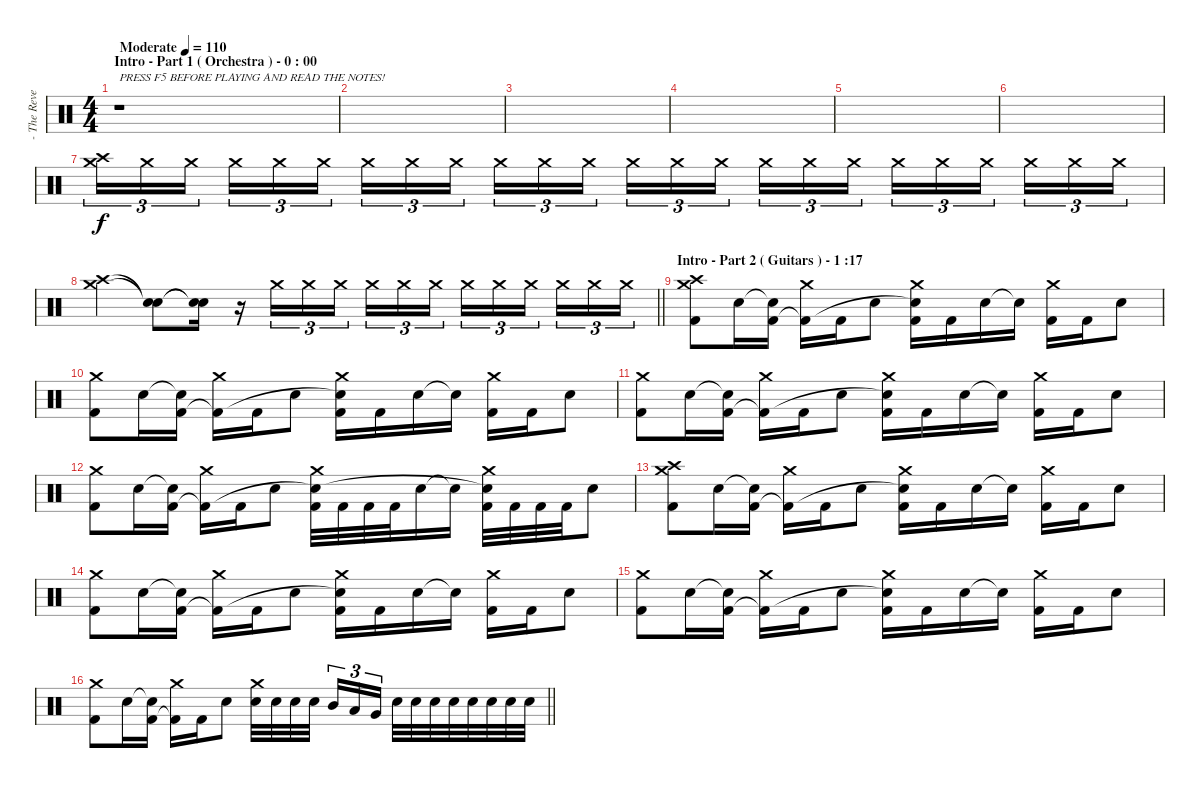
\track ("- The Reverend - Drums" "- The Reve") {instrument percussion}
\staff {score}
\articulation defaults
\ts (4 4)
\section ("" "Intro - Part 1 ( Orchestra ) - 0 : 00")
\tempo (110 "Moderate")
\clef neutral
\ks c
r.1{txt "PRESS F5 BEFORE PLAYING AND READ THE NOTES!" dy f volume 2} |
|
|
|
|
|
("Crash high (hit)" "Crash medium (hit)").16{tu (3 2) volume 16} "Crash medium (hit)".16{tu (3 2)} "Crash medium (hit)".16{tu (3 2) beam splitsecondary} "Crash medium (hit)".16{tu (3 2)} "Crash medium (hit)".16{tu (3 2)} "Crash medium (hit)".16{tu (3 2)} "Crash medium (hit)".16{tu (3 2)} "Crash medium (hit)".16{tu (3 2)} "Crash medium (hit)".16{tu (3 2) beam splitsecondary} "Crash medium (hit)".16{tu (3 2)} "Crash medium (hit)".16{tu (3 2)} "Crash medium (hit)".16{tu (3 2)} "Crash medium (hit)".16{tu (3 2)} "Crash medium (hit)".16{tu (3 2)} "Crash medium (hit)".16{tu (3 2) beam splitsecondary} "Crash medium (hit)".16{tu (3 2)} "Crash medium (hit)".16{tu (3 2)} "Crash medium (hit)".16{tu (3 2)} "Crash medium (hit)".16{tu (3 2)} "Crash medium (hit)".16{tu (3 2)} "Crash medium (hit)".16{tu (3 2) beam splitsecondary} "Crash medium (hit)".16{tu (3 2)} "Crash medium (hit)".16{tu (3 2)} "Crash medium (hit)".16{tu (3 2)} |
\barLineRight lightlight
("Crash high (hit)" "Crash medium (hit)").4 ("Snare (hit)"{t} "Snare (hit)"{t}).8 ("Snare (hit)"{t} "Snare (hit)"{t}).16 r.16{volume 3} "Crash medium (hit)".16{tu (3 2) volume 16} "Crash medium (hit)".16{tu (3 2)} "Crash medium (hit)".16{tu (3 2) beam splitsecondary} "Crash medium (hit)".16{tu (3 2)} "Crash medium (hit)".16{tu (3 2)} "Crash medium (hit)".16{tu (3 2)} "Crash medium (hit)".16{tu (3 2)} "Crash medium (hit)".16{tu (3 2)} "Crash medium (hit)".16{tu (3 2) beam splitsecondary} "Crash medium (hit)".16{tu (3 2)} "Crash medium (hit)".16{tu (3 2)} "Crash medium (hit)".16{tu (3 2)} |
\section ("" "Intro - Part 2 ( Guitars ) - 1 :17")
("Crash medium (hit)" "Crash high (hit)" "Kick (hit) 2").8 "Snare (hit) 2".16 ("Snare (hit)"{t} "Kick (hit) 2").16 ("Crash medium (hit)" "Kick (hit) 2"{t}).16 "Kick (hit) 2".16 "Snare (hit) 2".8 ("Crash medium (hit)" "Snare (hit) 2"{t} "Kick (hit) 2").16 "Kick (hit) 2".16 "Snare (hit) 2".16 "Snare (hit) 2"{t}.16 ("Crash medium (hit)" "Kick (hit) 2").16 "Kick (hit) 2".16 "Snare (hit) 2".8 |
("Crash medium (hit)" "Kick (hit) 2").8 "Snare (hit) 2".16 ("Snare (hit)"{t} "Kick (hit) 2").16 ("Crash medium (hit)" "Kick (hit) 2"{t}).16 "Kick (hit) 2".16 "Snare (hit) 2".8 ("Crash medium (hit)" "Snare (hit) 2"{t} "Kick (hit) 2").16 "Kick (hit) 2".16 "Snare (hit) 2".16 "Snare (hit) 2"{t}.16 ("Crash medium (hit)" "Kick (hit) 2").16 "Kick (hit) 2".16 "Snare (hit) 2".8 |
("Crash medium (hit)" "Kick (hit) 2").8 "Snare (hit) 2".16 ("Snare (hit)"{t} "Kick (hit) 2").16 ("Crash medium (hit)" "Kick (hit) 2"{t}).16 "Kick (hit) 2".16 "Snare (hit) 2".8 ("Crash medium (hit)" "Snare (hit) 2"{t} "Kick (hit) 2").16 "Kick (hit) 2".16 "Snare (hit) 2".16 "Snare (hit) 2"{t}.16 ("Crash medium (hit)" "Kick (hit) 2").16 "Kick (hit) 2".16 "Snare (hit) 2".8 |
("Crash medium (hit)" "Kick (hit) 2").8 "Snare (hit) 2".16 ("Snare (hit)"{t} "Kick (hit) 2").16 ("Crash medium (hit)" "Kick (hit) 2"{t}).16 "Kick (hit) 2".16 "Snare (hit) 2".8 ("Crash medium (hit)" "Snare (hit) 2"{t} "Kick (hit) 2").32 "Kick (hit) 2".32 "Kick (hit) 2".32 "Kick (hit) 2".32 "Snare (hit) 2".16 "Snare (hit) 2"{t}.16 ("Crash medium (hit)" "Snare (hit) 2"{t} "Kick (hit) 2").32 "Kick (hit) 2".32 "Kick (hit) 2".32 "Kick (hit) 2".32 "Snare (hit) 2".8 |
("Crash medium (hit)" "Crash high (hit)" "Kick (hit) 2").8 "Snare (hit) 2".16 ("Snare (hit)"{t} "Kick (hit) 2").16 ("Crash medium (hit)" "Kick (hit) 2"{t}).16 "Kick (hit) 2".16 "Snare (hit) 2".8 ("Crash medium (hit)" "Snare (hit) 2"{t} "Kick (hit) 2").16 "Kick (hit) 2".16 "Snare (hit) 2".16 "Snare (hit) 2"{t}.16 ("Crash medium (hit)" "Kick (hit) 2").16 "Kick (hit) 2".16 "Snare (hit) 2".8 |
("Crash medium (hit)" "Kick (hit) 2").8 "Snare (hit) 2".16 ("Snare (hit)"{t} "Kick (hit) 2").16 ("Crash medium (hit)" "Kick (hit) 2"{t}).16 "Kick (hit) 2".16 "Snare (hit) 2".8 ("Crash medium (hit)" "Snare (hit) 2"{t} "Kick (hit) 2").16 "Kick (hit) 2".16 "Snare (hit) 2".16 "Snare (hit) 2"{t}.16 ("Crash medium (hit)" "Kick (hit) 2").16 "Kick (hit) 2".16 "Snare (hit) 2".8 |
("Crash medium (hit)" "Kick (hit) 2").8 "Snare (hit) 2".16 ("Snare (hit)"{t} "Kick (hit) 2").16 ("Crash medium (hit)" "Kick (hit) 2"{t}).16 "Kick (hit) 2".16 "Snare (hit) 2".8 ("Crash medium (hit)" "Snare (hit) 2"{t} "Kick (hit) 2").16 "Kick (hit) 2".16 "Snare (hit) 2".16 "Snare (hit) 2"{t}.16 ("Crash medium (hit)" "Kick (hit) 2").16 "Kick (hit) 2".16 "Snare (hit) 2".8 |
\barLineRight lightlight
("Crash medium (hit)" "Kick (hit) 2").8 "Snare (hit) 2".16 ("Snare (hit)"{t} "Kick (hit) 2").16 ("Crash medium (hit)" "Kick (hit) 2"{t}).16 "Kick (hit) 2".16 "Snare (hit) 2".8 ("Crash medium (hit)" "Electric Snare (hit)").32 "Electric Snare (hit)".32 "Electric Snare (hit)".32 "Electric Snare (hit)".32{beam splitsecondary} "Mid Tom (hit)".16{tu (3 2)} "Low Tom (hit)".16{tu (3 2)} "Very Low Tom (hit)".16{tu (3 2)} "Electric Snare (hit)".32 "Electric Snare (hit)".32 "Electric Snare (hit)".32 "Electric Snare (hit)".32 "Electric Snare (hit)".32 "Electric Snare (hit)".32 "Electric Snare (hit)".32 "Electric Snare (hit)".32
